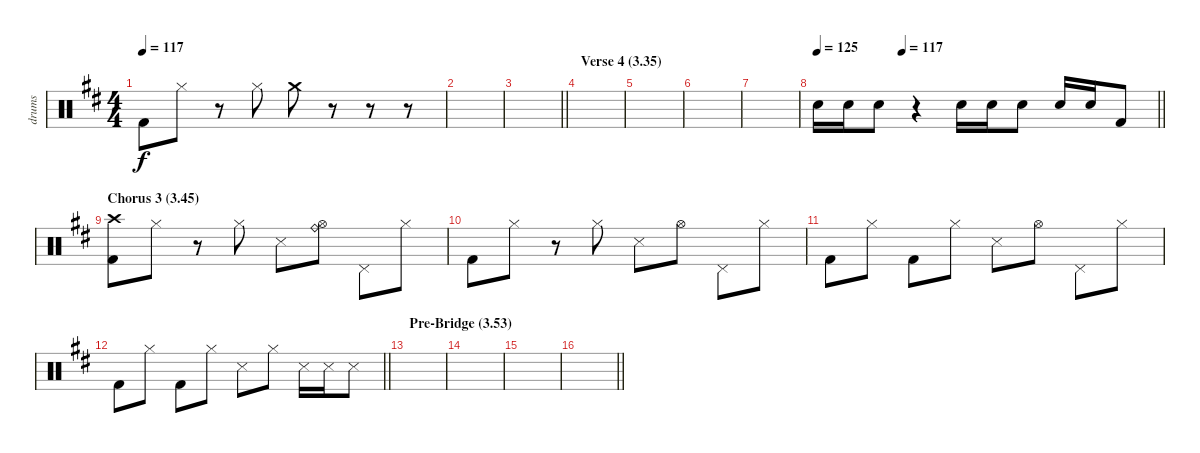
\track ("drums" "drums") {instrument percussion}
\staff {score}
\articulation defaults
\ts (4 4)
\tempo 117
\clef neutral
\ks d "Kick (hit) 2".8{dy f} "Hi-Hat (closed)".8
r.8 "Hi-Hat (closed)".8 "Crash medium (hit)".8 r.8 r.8 r.8 |
|
\barLineRight lightlight
|
\section ("" "Verse 4 (3.35)")
|
|
|
|
\tempo 125
\tempo (117 0.25)
\barLineRight lightlight "Electric Snare (hit)".16 "Electric Snare (hit)".16 "Electric Snare (hit)".8
r.4 "Electric Snare (hit)".16 "Electric Snare (hit)".16 "Electric Snare (hit)".8 "Electric Snare (hit)".16 "Electric Snare (hit)".16 "Kick (hit) 2".8 |
\section ("" "Chorus 3 (3.45)")
("Crash high (hit)" "Kick (hit) 2").8 "Hi-Hat (closed)".8 r.8 "Hi-Hat (closed)".8 "Snare (side stick) 3".8 ("Hi-Hat (open)" "Ride (bell)").8 "Pedal Hi-Hat (hit)".8 "Hi-Hat (closed)".8 |
"Kick (hit) 2".8 "Hi-Hat (closed)".8 r.8 "Hi-Hat (closed)".8 "Snare (side stick) 3".8 "Hi-Hat (open)".8 "Pedal Hi-Hat (hit)".8 "Hi-Hat (closed)".8 |
"Kick (hit) 2".8 "Hi-Hat (closed)".8 "Kick (hit) 2".8 "Hi-Hat (closed)".8 "Snare (side stick) 3".8 "Hi-Hat (open)".8 "Pedal Hi-Hat (hit)".8 "Hi-Hat (closed)".8 |
\barLineRight lightlight "Kick (hit) 2".8 "Hi-Hat (closed)".8 "Kick (hit) 2".8 "Hi-Hat (closed)".8 "Snare (side stick) 3".8 "Hi-Hat (closed)".8 "Snare (side stick) 3".16 "Snare (side stick) 3".16 "Snare (side stick) 3".8
|
\section ("" "Pre-Bridge (3.53)")
|
|
|
\barLineRight lightlight
